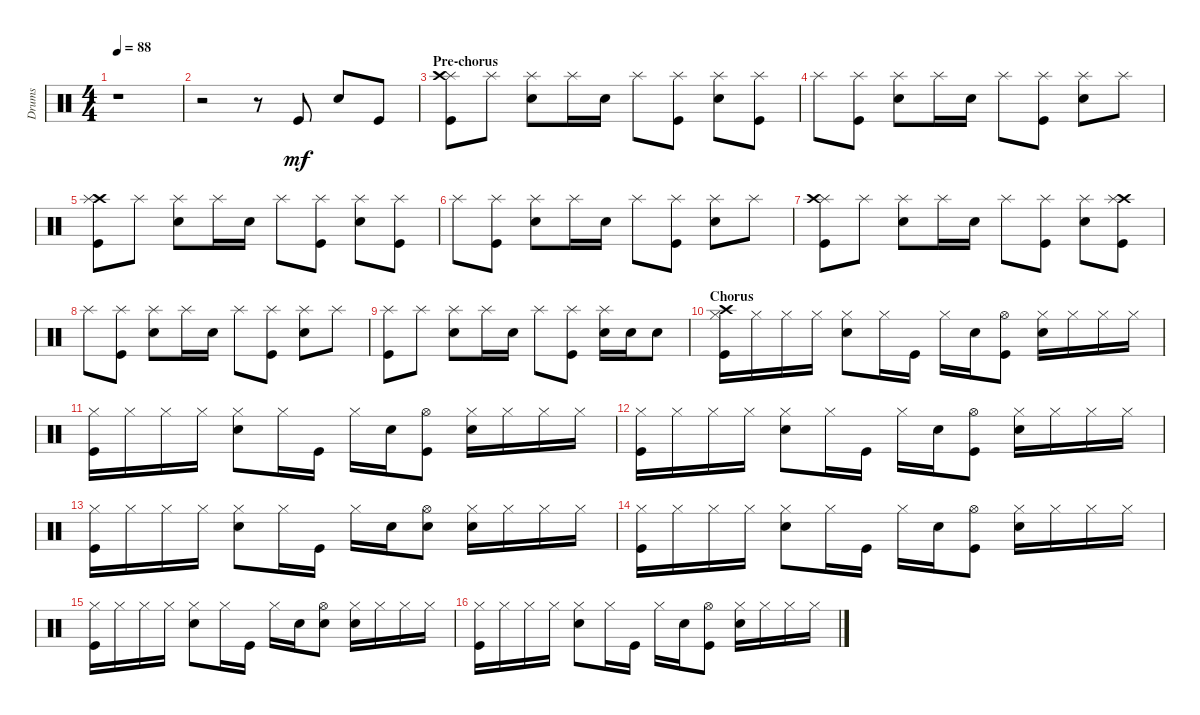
\track ("Drums" "Drums") {instrument percussion}
\staff {score}
\articulation defaults
\ts (4 4)
\tempo 88
\clef neutral
\ks c
r.1{dy mf} |
r.2 r.8 "Kick (hit)".8 "Electric Snare (hit)".8 "Kick (hit)".8 |
\section ("" "Pre-chorus")
("Splash (hit)" "Crash high (hit)" "Kick (hit)").8 "Splash (hit)".8 ("Electric Snare (hit)" "Splash (hit)").8 "Splash (hit)".16 "Electric Snare (hit)".16 "Splash (hit)".8 ("Kick (hit)" "Splash (hit)").8 ("Electric Snare (hit)" "Splash (hit)").8 ("Kick (hit)" "Splash (hit)").8 |
"Splash (hit)".8 ("Splash (hit)" "Kick (hit)").8 ("Electric Snare (hit)" "Splash (hit)").8 "Splash (hit)".16 "Electric Snare (hit)".16 "Splash (hit)".8 ("Splash (hit)" "Kick (hit)").8 ("Splash (hit)" "Electric Snare (hit)").8 "Splash (hit)".8 |
("Crash high (hit)" "Kick (hit)" "Splash (hit)").8 "Splash (hit)".8 ("Splash (hit)" "Electric Snare (hit)").8 "Splash (hit)".16 "Electric Snare (hit)".16 "Splash (hit)".8 ("Splash (hit)" "Kick (hit)").8 ("Splash (hit)" "Electric Snare (hit)").8 ("Kick (hit)" "Splash (hit)").8 |
"Splash (hit)".8 ("Splash (hit)" "Kick (hit)").8 ("Splash (hit)" "Electric Snare (hit)").8 "Splash (hit)".16 "Electric Snare (hit)".16 "Splash (hit)".8 ("Splash (hit)" "Kick (hit)").8 ("Splash (hit)" "Electric Snare (hit)").8 "Splash (hit)".8 |
("Splash (hit)" "Kick (hit)" "Crash high (hit)").8 "Splash (hit)".8 ("Splash (hit)" "Electric Snare (hit)").8 "Splash (hit)".16 "Electric Snare (hit)".16 "Splash (hit)".8 ("Splash (hit)" "Kick (hit)").8 ("Splash (hit)" "Electric Snare (hit)").8 ("Crash high (hit)" "Kick (hit)" "Splash (hit)").8 |
"Splash (hit)".8 ("Kick (hit)" "Splash (hit)").8 ("Electric Snare (hit)" "Splash (hit)").8 "Splash (hit)".16 "Electric Snare (hit)".16 "Splash (hit)".8 ("Kick (hit)" "Splash (hit)").8 ("Electric Snare (hit)" "Splash (hit)").8 "Splash (hit)".8 |
("Kick (hit)" "Splash (hit)").8 "Splash (hit)".8 ("Electric Snare (hit)" "Splash (hit)").8 "Splash (hit)".16 "Electric Snare (hit)".16 "Splash (hit)".8 ("Splash (hit)" "Kick (hit)").8 ("Electric Snare (hit)" "Splash (hit)").16 "Electric Snare (hit)".16 "Electric Snare (hit)".8 |
\section ("" "Chorus")
("Crash high (hit)" "Hi-Hat (closed)" "Kick (hit)").16 "Hi-Hat (closed)".16 "Hi-Hat (closed)".16 "Hi-Hat (closed)".16 ("Electric Snare (hit)" "Hi-Hat (closed)").8 "Hi-Hat (closed)".16 "Kick (hit)".16 "Hi-Hat (closed)".16 "Electric Snare (hit)".16 ("Hi-Hat (open)" "Kick (hit)").8 ("Electric Snare (hit)" "Hi-Hat (closed)").16 "Hi-Hat (closed)".16 "Hi-Hat (closed)".16 "Hi-Hat (closed)".16 |
("Kick (hit)" "Hi-Hat (closed)").16 "Hi-Hat (closed)".16 "Hi-Hat (closed)".16 "Hi-Hat (closed)".16 ("Hi-Hat (closed)" "Electric Snare (hit)").8 "Hi-Hat (closed)".16 "Kick (hit)".16 "Hi-Hat (closed)".16 "Electric Snare (hit)".16 ("Hi-Hat (open)" "Kick (hit)").8 ("Hi-Hat (closed)" "Electric Snare (hit)").16 "Hi-Hat (closed)".16 "Hi-Hat (closed)".16 "Hi-Hat (closed)".16 |
("Hi-Hat (closed)" "Kick (hit)").16 "Hi-Hat (closed)".16 "Hi-Hat (closed)".16 "Hi-Hat (closed)".16 ("Electric Snare (hit)" "Hi-Hat (closed)").8 "Hi-Hat (closed)".16 "Kick (hit)".16 "Hi-Hat (closed)".16 "Electric Snare (hit)".16 ("Kick (hit)" "Hi-Hat (open)").8 ("Electric Snare (hit)" "Hi-Hat (closed)").16 "Hi-Hat (closed)".16 "Hi-Hat (closed)".16 "Hi-Hat (closed)".16 |
("Kick (hit)" "Hi-Hat (closed)").16 "Hi-Hat (closed)".16 "Hi-Hat (closed)".16 "Hi-Hat (closed)".16 ("Hi-Hat (closed)" "Electric Snare (hit)").8 "Hi-Hat (closed)".16 "Kick (hit)".16 "Hi-Hat (closed)".16 "Electric Snare (hit)".16 ("Electric Snare (hit)" "Hi-Hat (open)").8 ("Hi-Hat (closed)" "Electric Snare (hit)").16 "Hi-Hat (closed)".16 "Hi-Hat (closed)".16 "Hi-Hat (closed)".16 |
("Hi-Hat (closed)" "Kick (hit)").16 "Hi-Hat (closed)".16 "Hi-Hat (closed)".16 "Hi-Hat (closed)".16 ("Electric Snare (hit)" "Hi-Hat (closed)").8 "Hi-Hat (closed)".16 "Kick (hit)".16 "Hi-Hat (closed)".16 "Electric Snare (hit)".16 ("Kick (hit)" "Hi-Hat (open)").8 ("Electric Snare (hit)" "Hi-Hat (closed)").16 "Hi-Hat (closed)".16 "Hi-Hat (closed)".16 "Hi-Hat (closed)".16 |
("Hi-Hat (closed)" "Kick (hit)").16 "Hi-Hat (closed)".16 "Hi-Hat (closed)".16 "Hi-Hat (closed)".16 ("Hi-Hat (closed)" "Electric Snare (hit)").8 "Hi-Hat (closed)".16 "Kick (hit)".16 "Hi-Hat (closed)".16 "Electric Snare (hit)".16 ("Electric Snare (hit)" "Hi-Hat (open)").8 ("Electric Snare (hit)" "Hi-Hat (closed)").16 "Hi-Hat (closed)".16 "Hi-Hat (closed)".16 "Hi-Hat (closed)".16 |
("Hi-Hat (closed)" "Kick (hit)").16 "Hi-Hat (closed)".16 "Hi-Hat (closed)".16 "Hi-Hat (closed)".16 ("Electric Snare (hit)" "Hi-Hat (closed)").8 "Hi-Hat (closed)".16 "Kick (hit)".16 "Hi-Hat (closed)".16 "Electric Snare (hit)".16 ("Hi-Hat (open)" "Kick (hit)").8 ("Hi-Hat (closed)" "Electric Snare (hit)").16 "Hi-Hat (closed)".16 "Hi-Hat (closed)".16 "Hi-Hat (closed)".16
